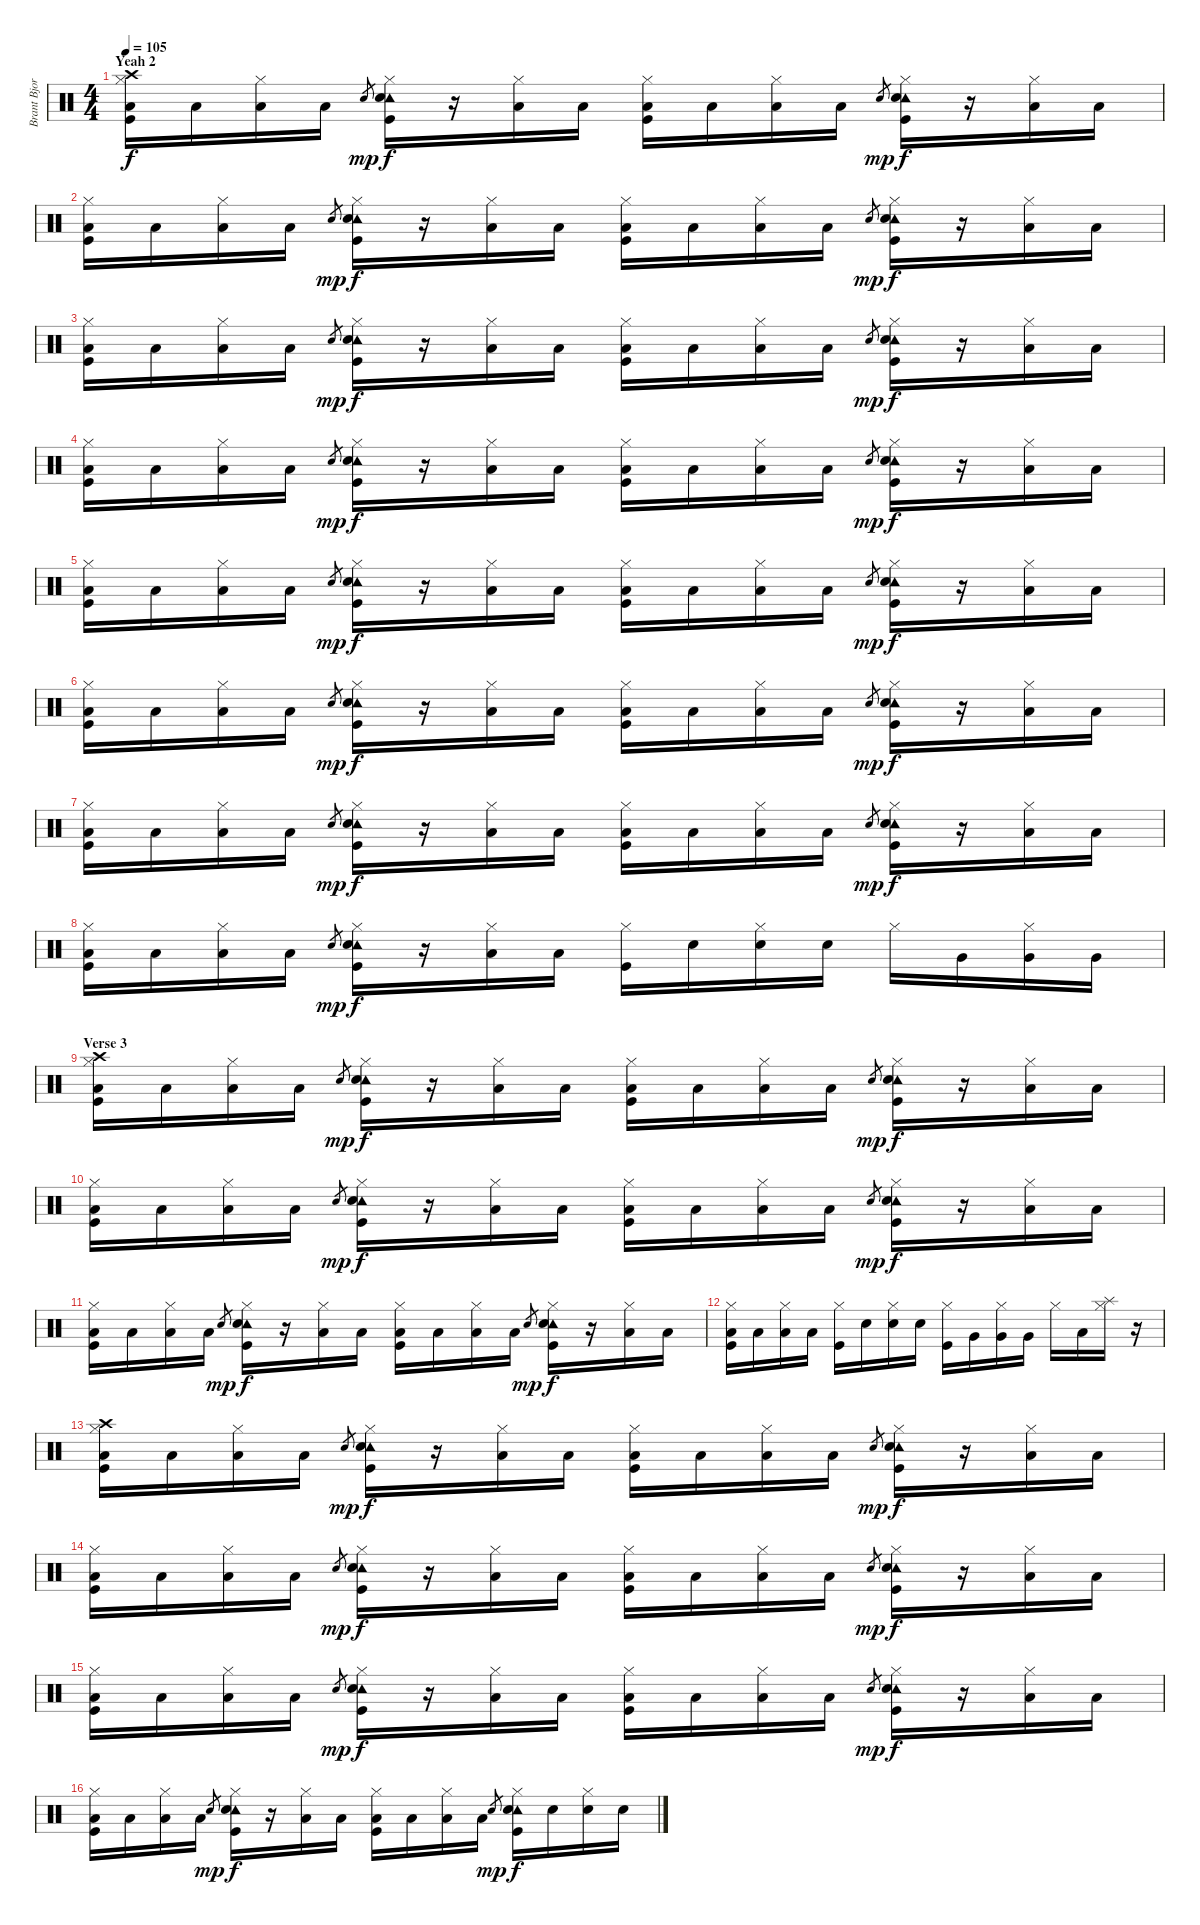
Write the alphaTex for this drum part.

\track ("Brant Bjork - Drums" "Brant Bjor") {instrument percussion}
\staff {score}
\articulation defaults
\ts (4 4)
\section ("" "Yeah 2")
\tempo 105
\clef neutral
\ks c
("Crash high (hit)" "Hi-Hat (closed)" "Low Floor Tom (hit)" "Kick (hit)").16{dy f} "Low Floor Tom (hit)".16 ("Hi-Hat (closed)" "Low Floor Tom (hit)").16 "Low Floor Tom (hit)".16 "Snare (hit) 2".8{gr dy mp} ("Tambourine (hit)" "Hi-Hat (closed)" "Snare (hit) 2" "Kick (hit)").16{dy f} r.16 ("Hi-Hat (closed)" "Low Floor Tom (hit)").16 "Low Floor Tom (hit)".16 ("Hi-Hat (closed)" "Low Floor Tom (hit)" "Kick (hit)").16 "Low Floor Tom (hit)".16 ("Hi-Hat (closed)" "Low Floor Tom (hit)").16 "Low Floor Tom (hit)".16 "Snare (hit) 2".8{gr dy mp} ("Tambourine (hit)" "Hi-Hat (closed)" "Snare (hit) 2" "Kick (hit)").16{dy f} r.16 ("Hi-Hat (closed)" "Low Floor Tom (hit)").16 "Low Floor Tom (hit)".16 |
("Hi-Hat (closed)" "Low Floor Tom (hit)" "Kick (hit)").16 "Low Floor Tom (hit)".16 ("Hi-Hat (closed)" "Low Floor Tom (hit)").16 "Low Floor Tom (hit)".16 "Snare (hit) 2".8{gr dy mp} ("Tambourine (hit)" "Hi-Hat (closed)" "Snare (hit) 2" "Kick (hit)").16{dy f} r.16 ("Hi-Hat (closed)" "Low Floor Tom (hit)").16 "Low Floor Tom (hit)".16 ("Hi-Hat (closed)" "Low Floor Tom (hit)" "Kick (hit)").16 "Low Floor Tom (hit)".16 ("Hi-Hat (closed)" "Low Floor Tom (hit)").16 "Low Floor Tom (hit)".16 "Snare (hit) 2".8{gr dy mp} ("Tambourine (hit)" "Hi-Hat (closed)" "Snare (hit) 2" "Kick (hit)").16{dy f} r.16 ("Hi-Hat (closed)" "Low Floor Tom (hit)").16 "Low Floor Tom (hit)".16 |
("Hi-Hat (closed)" "Low Floor Tom (hit)" "Kick (hit)").16 "Low Floor Tom (hit)".16 ("Hi-Hat (closed)" "Low Floor Tom (hit)").16 "Low Floor Tom (hit)".16 "Snare (hit) 2".8{gr dy mp} ("Tambourine (hit)" "Hi-Hat (closed)" "Snare (hit) 2" "Kick (hit)").16{dy f} r.16 ("Hi-Hat (closed)" "Low Floor Tom (hit)").16 "Low Floor Tom (hit)".16 ("Hi-Hat (closed)" "Low Floor Tom (hit)" "Kick (hit)").16 "Low Floor Tom (hit)".16 ("Hi-Hat (closed)" "Low Floor Tom (hit)").16 "Low Floor Tom (hit)".16 "Snare (hit) 2".8{gr dy mp} ("Tambourine (hit)" "Hi-Hat (closed)" "Snare (hit) 2" "Kick (hit)").16{dy f} r.16 ("Hi-Hat (closed)" "Low Floor Tom (hit)").16 "Low Floor Tom (hit)".16 |
("Hi-Hat (closed)" "Low Floor Tom (hit)" "Kick (hit)").16 "Low Floor Tom (hit)".16 ("Hi-Hat (closed)" "Low Floor Tom (hit)").16 "Low Floor Tom (hit)".16 "Snare (hit) 2".8{gr dy mp} ("Tambourine (hit)" "Hi-Hat (closed)" "Snare (hit) 2" "Kick (hit)").16{dy f} r.16 ("Hi-Hat (closed)" "Low Floor Tom (hit)").16 "Low Floor Tom (hit)".16 ("Hi-Hat (closed)" "Low Floor Tom (hit)" "Kick (hit)").16 "Low Floor Tom (hit)".16 ("Hi-Hat (closed)" "Low Floor Tom (hit)").16 "Low Floor Tom (hit)".16 "Snare (hit) 2".8{gr dy mp} ("Tambourine (hit)" "Hi-Hat (closed)" "Snare (hit) 2" "Kick (hit)").16{dy f} r.16 ("Hi-Hat (closed)" "Low Floor Tom (hit)").16 "Low Floor Tom (hit)".16 |
("Hi-Hat (closed)" "Low Floor Tom (hit)" "Kick (hit)").16 "Low Floor Tom (hit)".16 ("Hi-Hat (closed)" "Low Floor Tom (hit)").16 "Low Floor Tom (hit)".16 "Snare (hit) 2".8{gr dy mp} ("Tambourine (hit)" "Hi-Hat (closed)" "Snare (hit) 2" "Kick (hit)").16{dy f} r.16 ("Hi-Hat (closed)" "Low Floor Tom (hit)").16 "Low Floor Tom (hit)".16 ("Hi-Hat (closed)" "Low Floor Tom (hit)" "Kick (hit)").16 "Low Floor Tom (hit)".16 ("Hi-Hat (closed)" "Low Floor Tom (hit)").16 "Low Floor Tom (hit)".16 "Snare (hit) 2".8{gr dy mp} ("Tambourine (hit)" "Hi-Hat (closed)" "Snare (hit) 2" "Kick (hit)").16{dy f} r.16 ("Hi-Hat (closed)" "Low Floor Tom (hit)").16 "Low Floor Tom (hit)".16 |
("Hi-Hat (closed)" "Low Floor Tom (hit)" "Kick (hit)").16 "Low Floor Tom (hit)".16 ("Hi-Hat (closed)" "Low Floor Tom (hit)").16 "Low Floor Tom (hit)".16 "Snare (hit) 2".8{gr dy mp} ("Tambourine (hit)" "Hi-Hat (closed)" "Snare (hit) 2" "Kick (hit)").16{dy f} r.16 ("Hi-Hat (closed)" "Low Floor Tom (hit)").16 "Low Floor Tom (hit)".16 ("Hi-Hat (closed)" "Low Floor Tom (hit)" "Kick (hit)").16 "Low Floor Tom (hit)".16 ("Hi-Hat (closed)" "Low Floor Tom (hit)").16 "Low Floor Tom (hit)".16 "Snare (hit) 2".8{gr dy mp} ("Tambourine (hit)" "Hi-Hat (closed)" "Snare (hit) 2" "Kick (hit)").16{dy f} r.16 ("Hi-Hat (closed)" "Low Floor Tom (hit)").16 "Low Floor Tom (hit)".16 |
("Hi-Hat (closed)" "Low Floor Tom (hit)" "Kick (hit)").16 "Low Floor Tom (hit)".16 ("Hi-Hat (closed)" "Low Floor Tom (hit)").16 "Low Floor Tom (hit)".16 "Snare (hit) 2".8{gr dy mp} ("Tambourine (hit)" "Hi-Hat (closed)" "Snare (hit) 2" "Kick (hit)").16{dy f} r.16 ("Hi-Hat (closed)" "Low Floor Tom (hit)").16 "Low Floor Tom (hit)".16 ("Hi-Hat (closed)" "Low Floor Tom (hit)" "Kick (hit)").16 "Low Floor Tom (hit)".16 ("Hi-Hat (closed)" "Low Floor Tom (hit)").16 "Low Floor Tom (hit)".16 "Snare (hit) 2".8{gr dy mp} ("Tambourine (hit)" "Hi-Hat (closed)" "Snare (hit) 2" "Kick (hit)").16{dy f} r.16 ("Hi-Hat (closed)" "Low Floor Tom (hit)").16 "Low Floor Tom (hit)".16 |
("Hi-Hat (closed)" "Low Floor Tom (hit)" "Kick (hit)").16 "Low Floor Tom (hit)".16 ("Hi-Hat (closed)" "Low Floor Tom (hit)").16 "Low Floor Tom (hit)".16 "Snare (hit) 2".8{gr dy mp} ("Tambourine (hit)" "Hi-Hat (closed)" "Snare (hit) 2" "Kick (hit)").16{dy f} r.16 ("Hi-Hat (closed)" "Low Floor Tom (hit)").16 "Low Floor Tom (hit)".16 ("Hi-Hat (closed)" "Kick (hit)").16 "Snare (hit) 2".16 ("Hi-Hat (closed)" "Snare (hit) 2").16 "Snare (hit) 2".16 "Hi-Hat (closed)".16 "Very Low Tom (hit)".16 ("Hi-Hat (closed)" "Very Low Tom (hit)").16 "Very Low Tom (hit)".16 |
\section ("" "Verse 3")
("Crash high (hit)" "Hi-Hat (closed)" "Low Floor Tom (hit)" "Kick (hit)").16 "Low Floor Tom (hit)".16 ("Hi-Hat (closed)" "Low Floor Tom (hit)").16 "Low Floor Tom (hit)".16 "Snare (hit) 2".8{gr dy mp} ("Tambourine (hit)" "Hi-Hat (closed)" "Snare (hit) 2" "Kick (hit)").16{dy f} r.16 ("Hi-Hat (closed)" "Low Floor Tom (hit)").16 "Low Floor Tom (hit)".16 ("Hi-Hat (closed)" "Low Floor Tom (hit)" "Kick (hit)").16 "Low Floor Tom (hit)".16 ("Hi-Hat (closed)" "Low Floor Tom (hit)").16 "Low Floor Tom (hit)".16 "Snare (hit) 2".8{gr dy mp} ("Tambourine (hit)" "Hi-Hat (closed)" "Snare (hit) 2" "Kick (hit)").16{dy f} r.16 ("Hi-Hat (closed)" "Low Floor Tom (hit)").16 "Low Floor Tom (hit)".16 |
("Hi-Hat (closed)" "Low Floor Tom (hit)" "Kick (hit)").16 "Low Floor Tom (hit)".16 ("Hi-Hat (closed)" "Low Floor Tom (hit)").16 "Low Floor Tom (hit)".16 "Snare (hit) 2".8{gr dy mp} ("Tambourine (hit)" "Hi-Hat (closed)" "Snare (hit) 2" "Kick (hit)").16{dy f} r.16 ("Hi-Hat (closed)" "Low Floor Tom (hit)").16 "Low Floor Tom (hit)".16 ("Hi-Hat (closed)" "Low Floor Tom (hit)" "Kick (hit)").16 "Low Floor Tom (hit)".16 ("Hi-Hat (closed)" "Low Floor Tom (hit)").16 "Low Floor Tom (hit)".16 "Snare (hit) 2".8{gr dy mp} ("Tambourine (hit)" "Hi-Hat (closed)" "Snare (hit) 2" "Kick (hit)").16{dy f} r.16 ("Hi-Hat (closed)" "Low Floor Tom (hit)").16 "Low Floor Tom (hit)".16 |
("Hi-Hat (closed)" "Low Floor Tom (hit)" "Kick (hit)").16 "Low Floor Tom (hit)".16 ("Hi-Hat (closed)" "Low Floor Tom (hit)").16 "Low Floor Tom (hit)".16 "Snare (hit) 2".8{gr dy mp} ("Tambourine (hit)" "Hi-Hat (closed)" "Snare (hit) 2" "Kick (hit)").16{dy f} r.16 ("Hi-Hat (closed)" "Low Floor Tom (hit)").16 "Low Floor Tom (hit)".16 ("Hi-Hat (closed)" "Low Floor Tom (hit)" "Kick (hit)").16 "Low Floor Tom (hit)".16 ("Hi-Hat (closed)" "Low Floor Tom (hit)").16 "Low Floor Tom (hit)".16 "Snare (hit) 2".8{gr dy mp} ("Tambourine (hit)" "Hi-Hat (closed)" "Snare (hit) 2" "Kick (hit)").16{dy f} r.16 ("Hi-Hat (closed)" "Low Floor Tom (hit)").16 "Low Floor Tom (hit)".16 |
("Hi-Hat (closed)" "Low Floor Tom (hit)" "Kick (hit)").16 "Low Floor Tom (hit)".16 ("Hi-Hat (closed)" "Low Floor Tom (hit)").16 "Low Floor Tom (hit)".16 ("Hi-Hat (closed)" "Kick (hit)").16 "Snare (hit) 2".16 ("Hi-Hat (closed)" "Snare (hit) 2").16 "Snare (hit) 2".16 ("Hi-Hat (closed)" "Kick (hit)").16 "Very Low Tom (hit)".16 ("Hi-Hat (closed)" "Very Low Tom (hit)").16 "Very Low Tom (hit)".16 "Hi-Hat (closed)".16 "Low Floor Tom (hit)".16 ("Hi-Hat (closed)" "Splash (hit)").16 r.16 |
("Crash high (hit)" "Hi-Hat (closed)" "Low Floor Tom (hit)" "Kick (hit)").16 "Low Floor Tom (hit)".16 ("Hi-Hat (closed)" "Low Floor Tom (hit)").16 "Low Floor Tom (hit)".16 "Snare (hit) 2".8{gr dy mp} ("Tambourine (hit)" "Hi-Hat (closed)" "Snare (hit) 2" "Kick (hit)").16{dy f} r.16 ("Hi-Hat (closed)" "Low Floor Tom (hit)").16 "Low Floor Tom (hit)".16 ("Hi-Hat (closed)" "Low Floor Tom (hit)" "Kick (hit)").16 "Low Floor Tom (hit)".16 ("Hi-Hat (closed)" "Low Floor Tom (hit)").16 "Low Floor Tom (hit)".16 "Snare (hit) 2".8{gr dy mp} ("Tambourine (hit)" "Hi-Hat (closed)" "Snare (hit) 2" "Kick (hit)").16{dy f} r.16 ("Hi-Hat (closed)" "Low Floor Tom (hit)").16 "Low Floor Tom (hit)".16 |
("Hi-Hat (closed)" "Low Floor Tom (hit)" "Kick (hit)").16 "Low Floor Tom (hit)".16 ("Hi-Hat (closed)" "Low Floor Tom (hit)").16 "Low Floor Tom (hit)".16 "Snare (hit) 2".8{gr dy mp} ("Tambourine (hit)" "Hi-Hat (closed)" "Snare (hit) 2" "Kick (hit)").16{dy f} r.16 ("Hi-Hat (closed)" "Low Floor Tom (hit)").16 "Low Floor Tom (hit)".16 ("Hi-Hat (closed)" "Low Floor Tom (hit)" "Kick (hit)").16 "Low Floor Tom (hit)".16 ("Hi-Hat (closed)" "Low Floor Tom (hit)").16 "Low Floor Tom (hit)".16 "Snare (hit) 2".8{gr dy mp} ("Tambourine (hit)" "Hi-Hat (closed)" "Snare (hit) 2" "Kick (hit)").16{dy f} r.16 ("Hi-Hat (closed)" "Low Floor Tom (hit)").16 "Low Floor Tom (hit)".16 |
("Hi-Hat (closed)" "Low Floor Tom (hit)" "Kick (hit)").16 "Low Floor Tom (hit)".16 ("Hi-Hat (closed)" "Low Floor Tom (hit)").16 "Low Floor Tom (hit)".16 "Snare (hit) 2".8{gr dy mp} ("Tambourine (hit)" "Hi-Hat (closed)" "Snare (hit) 2" "Kick (hit)").16{dy f} r.16 ("Hi-Hat (closed)" "Low Floor Tom (hit)").16 "Low Floor Tom (hit)".16 ("Hi-Hat (closed)" "Low Floor Tom (hit)" "Kick (hit)").16 "Low Floor Tom (hit)".16 ("Hi-Hat (closed)" "Low Floor Tom (hit)").16 "Low Floor Tom (hit)".16 "Snare (hit) 2".8{gr dy mp} ("Tambourine (hit)" "Hi-Hat (closed)" "Snare (hit) 2" "Kick (hit)").16{dy f} r.16 ("Hi-Hat (closed)" "Low Floor Tom (hit)").16 "Low Floor Tom (hit)".16 |
("Hi-Hat (closed)" "Low Floor Tom (hit)" "Kick (hit)").16 "Low Floor Tom (hit)".16 ("Hi-Hat (closed)" "Low Floor Tom (hit)").16 "Low Floor Tom (hit)".16 "Snare (hit) 2".8{gr dy mp} ("Tambourine (hit)" "Hi-Hat (closed)" "Snare (hit) 2" "Kick (hit)").16{dy f} r.16 ("Hi-Hat (closed)" "Low Floor Tom (hit)").16 "Low Floor Tom (hit)".16 ("Hi-Hat (closed)" "Low Floor Tom (hit)" "Kick (hit)").16 "Low Floor Tom (hit)".16 ("Hi-Hat (closed)" "Low Floor Tom (hit)").16 "Low Floor Tom (hit)".16 "Snare (hit) 2".8{gr dy mp} ("Tambourine (hit)" "Hi-Hat (closed)" "Snare (hit) 2" "Kick (hit)").16{dy f} "Snare (hit) 2".16 ("Hi-Hat (closed)" "Snare (hit) 2").16 "Snare (hit) 2".16
